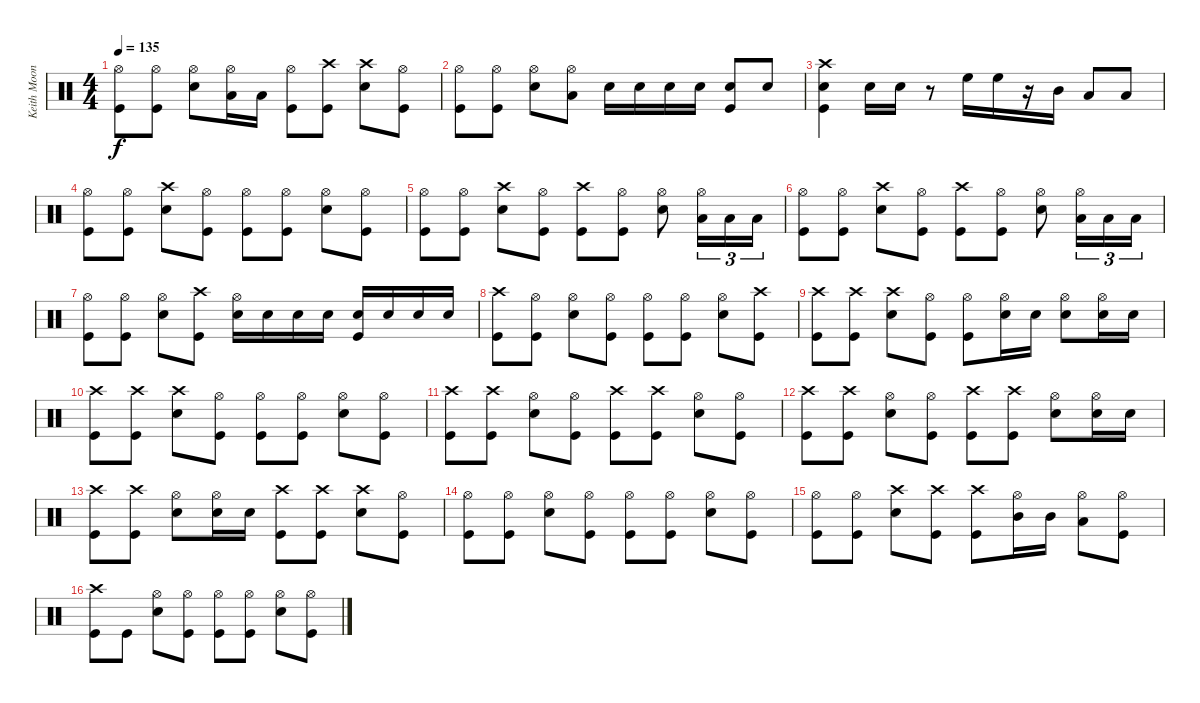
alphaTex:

\track ("Keith Moon" "Keith Moon") {instrument percussion}
\staff {score}
\articulation defaults
\ts (4 4)
\tempo 135
\clef neutral
\ks c
("Hi-Hat (open)" "Kick (hit)").8{dy f} ("Hi-Hat (open)" "Kick (hit)").8 ("Hi-Hat (open)" "Snare (hit) 2").8 ("Hi-Hat (open)" "Low Tom (hit)").16 "Low Tom (hit)".16 ("Hi-Hat (open)" "Kick (hit)").8 ("Crash high (hit)" "Kick (hit)").8 ("Crash high (hit)" "Snare (hit) 2").8 ("Hi-Hat (open)" "Kick (hit)").8 |
("Hi-Hat (open)" "Kick (hit)").8 ("Hi-Hat (open)" "Kick (hit)").8 ("Hi-Hat (open)" "Snare (hit) 2").8 ("Hi-Hat (open)" "Low Tom (hit)").8 "Snare (hit) 2".16 "Snare (hit) 2".16 "Snare (hit) 2".16 "Snare (hit) 2".16 ("Snare (hit) 2" "Kick (hit)").8 "Snare (hit) 2".8 |
("Crash high (hit)" "Snare (hit) 2" "Kick (hit)").4 "Snare (hit) 2".16 "Snare (hit) 2".16 r.8 "High Floor Tom (hit)".16 "High Floor Tom (hit)".16 r.16 "Mid Tom (hit)".16 "Low Tom (hit)".8 "Low Tom (hit)".8 |
("Hi-Hat (open)" "Kick (hit)").8 ("Hi-Hat (open)" "Kick (hit)").8 ("Crash high (hit)" "Snare (hit) 2").8 ("Hi-Hat (open)" "Kick (hit)").8 ("Hi-Hat (open)" "Kick (hit)").8 ("Hi-Hat (open)" "Kick (hit)").8 ("Hi-Hat (open)" "Snare (hit) 2").8 ("Hi-Hat (open)" "Kick (hit)").8 |
("Hi-Hat (open)" "Kick (hit)").8 ("Hi-Hat (open)" "Kick (hit)").8 ("Crash high (hit)" "Snare (hit) 2").8 ("Hi-Hat (open)" "Kick (hit)").8 ("Crash high (hit)" "Kick (hit)").8 ("Hi-Hat (open)" "Kick (hit)").8 ("Hi-Hat (open)" "Snare (hit) 2").8 ("Hi-Hat (open)" "Low Tom (hit)").16{tu (3 2)} "Low Tom (hit)".16{tu (3 2)} "Low Tom (hit)".16{tu (3 2)} |
("Hi-Hat (open)" "Kick (hit)").8 ("Hi-Hat (open)" "Kick (hit)").8 ("Crash high (hit)" "Snare (hit) 2").8 ("Hi-Hat (open)" "Kick (hit)").8 ("Crash high (hit)" "Kick (hit)").8 ("Hi-Hat (open)" "Kick (hit)").8 ("Hi-Hat (open)" "Snare (hit) 2").8 ("Hi-Hat (open)" "Low Tom (hit)").16{tu (3 2)} "Low Tom (hit)".16{tu (3 2)} "Low Tom (hit)".16{tu (3 2)} |
("Hi-Hat (open)" "Kick (hit)").8 ("Hi-Hat (open)" "Kick (hit)").8 ("Hi-Hat (open)" "Snare (hit) 2").8 ("Crash high (hit)" "Kick (hit)").8 ("Hi-Hat (open)" "Snare (hit) 2").16 "Snare (hit) 2".16 "Snare (hit) 2".16 "Snare (hit) 2".16 ("Snare (hit) 2" "Kick (hit)").16 "Snare (hit) 2".16 "Snare (hit) 2".16 "Snare (hit) 2".16 |
("Crash high (hit)" "Kick (hit)").8 ("Hi-Hat (open)" "Kick (hit)").8 ("Hi-Hat (open)" "Snare (hit) 2").8 ("Hi-Hat (open)" "Kick (hit)").8 ("Hi-Hat (open)" "Kick (hit)").8 ("Hi-Hat (open)" "Kick (hit)").8 ("Hi-Hat (open)" "Snare (hit) 2").8 ("Crash high (hit)" "Kick (hit)").8 |
("Crash high (hit)" "Kick (hit)").8 ("Crash high (hit)" "Kick (hit)").8 ("Crash high (hit)" "Snare (hit) 2").8 ("Hi-Hat (open)" "Kick (hit)").8 ("Hi-Hat (open)" "Kick (hit)").8 ("Hi-Hat (open)" "Snare (hit) 2").16 "Snare (hit) 2".16 ("Hi-Hat (open)" "Snare (hit) 2").8 ("Hi-Hat (open)" "Snare (hit) 2").16 "Snare (hit) 2".16 |
("Crash high (hit)" "Kick (hit)").8 ("Crash high (hit)" "Kick (hit)").8 ("Crash high (hit)" "Snare (hit) 2").8 ("Hi-Hat (open)" "Kick (hit)").8 ("Hi-Hat (open)" "Kick (hit)").8 ("Hi-Hat (open)" "Kick (hit)").8 ("Hi-Hat (open)" "Snare (hit) 2").8 ("Hi-Hat (open)" "Kick (hit)").8 |
("Crash high (hit)" "Kick (hit)").8 ("Crash high (hit)" "Kick (hit)").8 ("Hi-Hat (open)" "Snare (hit) 2").8 ("Hi-Hat (open)" "Kick (hit)").8 ("Crash high (hit)" "Kick (hit)").8 ("Crash high (hit)" "Kick (hit)").8 ("Hi-Hat (open)" "Snare (hit) 2").8 ("Hi-Hat (open)" "Kick (hit)").8 |
("Crash high (hit)" "Kick (hit)").8 ("Crash high (hit)" "Kick (hit)").8 ("Hi-Hat (open)" "Snare (hit) 2").8 ("Hi-Hat (open)" "Kick (hit)").8 ("Crash high (hit)" "Kick (hit)").8 ("Crash high (hit)" "Kick (hit)").8 ("Hi-Hat (open)" "Snare (hit) 2").8 ("Hi-Hat (open)" "Snare (hit) 2").16 "Snare (hit) 2".16 |
("Crash high (hit)" "Kick (hit)").8 ("Crash high (hit)" "Kick (hit)").8 ("Hi-Hat (open)" "Snare (hit) 2").8 ("Hi-Hat (open)" "Snare (hit) 2").16 "Snare (hit) 2".16 ("Crash high (hit)" "Kick (hit)").8 ("Crash high (hit)" "Kick (hit)").8 ("Crash high (hit)" "Snare (hit) 2").8 ("Hi-Hat (open)" "Kick (hit)").8 |
("Hi-Hat (open)" "Kick (hit)").8 ("Hi-Hat (open)" "Kick (hit)").8 ("Hi-Hat (open)" "Snare (hit) 2").8 ("Hi-Hat (open)" "Kick (hit)").8 ("Hi-Hat (open)" "Kick (hit)").8 ("Hi-Hat (open)" "Kick (hit)").8 ("Hi-Hat (open)" "Snare (hit) 2").8 ("Hi-Hat (open)" "Kick (hit)").8 |
("Hi-Hat (open)" "Kick (hit)").8 ("Hi-Hat (open)" "Kick (hit)").8 ("Crash high (hit)" "Snare (hit) 2").8 ("Crash high (hit)" "Kick (hit)").8 ("Crash high (hit)" "Kick (hit)").8 ("Hi-Hat (open)" "Mid Tom (hit)").16 "Mid Tom (hit)".16 ("Hi-Hat (open)" "Low Tom (hit)").8 ("Hi-Hat (open)" "Kick (hit)").8 |
("Crash high (hit)" "Kick (hit)").8 "Kick (hit)".8 ("Hi-Hat (open)" "Snare (hit) 2").8 ("Hi-Hat (open)" "Kick (hit)").8 ("Hi-Hat (open)" "Kick (hit)").8 ("Hi-Hat (open)" "Kick (hit)").8 ("Hi-Hat (open)" "Snare (hit) 2").8 ("Hi-Hat (open)" "Kick (hit)").8
